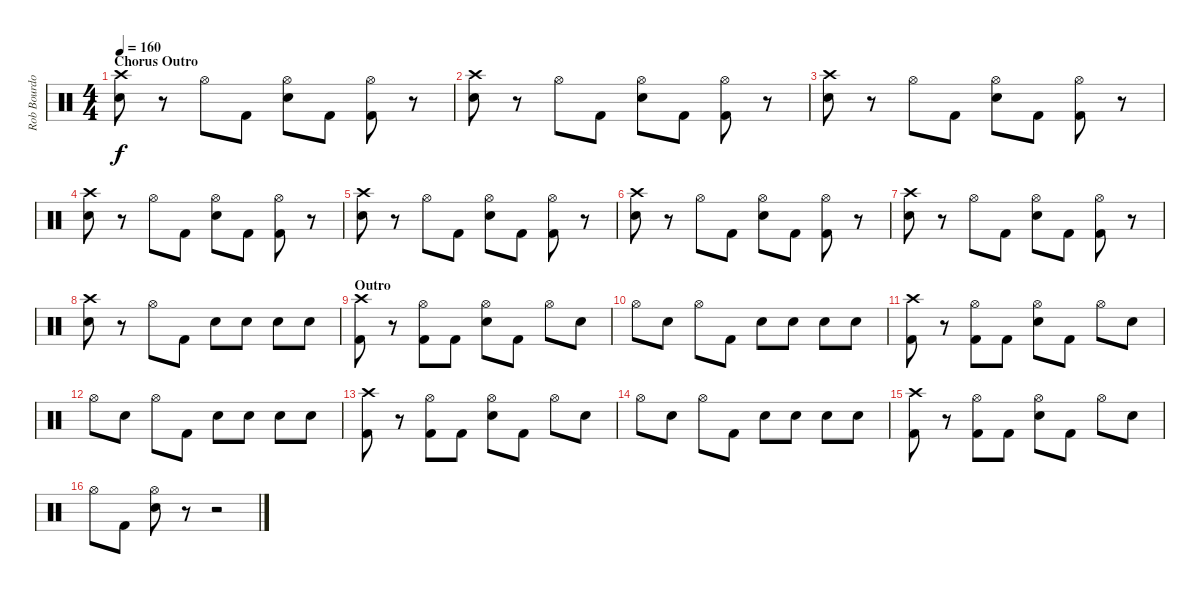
\track ("Rob Bourdon (Drums)" "Rob Bourdo") {instrument percussion}
\staff {score}
\articulation defaults
\ts (4 4)
\section ("" "Chorus Outro")
\tempo 160
\clef neutral
\ks c
("Crash high (hit)" "Electric Snare (hit)").8{dy f} r.8 "Hi-Hat (open)".8 "Kick (hit) 2".8 ("Hi-Hat (open)" "Electric Snare (hit)").8 "Kick (hit) 2".8 ("Hi-Hat (open)" "Kick (hit) 2").8 r.8 |
("Crash high (hit)" "Electric Snare (hit)").8 r.8 "Hi-Hat (open)".8 "Kick (hit) 2".8 ("Hi-Hat (open)" "Electric Snare (hit)").8 "Kick (hit) 2".8 ("Hi-Hat (open)" "Kick (hit) 2").8 r.8 |
("Crash high (hit)" "Electric Snare (hit)").8 r.8 "Hi-Hat (open)".8 "Kick (hit) 2".8 ("Hi-Hat (open)" "Electric Snare (hit)").8 "Kick (hit) 2".8 ("Hi-Hat (open)" "Kick (hit) 2").8 r.8 |
("Crash high (hit)" "Electric Snare (hit)").8 r.8 "Hi-Hat (open)".8 "Kick (hit) 2".8 ("Hi-Hat (open)" "Electric Snare (hit)").8 "Kick (hit) 2".8 ("Hi-Hat (open)" "Kick (hit) 2").8 r.8 |
("Crash high (hit)" "Electric Snare (hit)").8 r.8 "Hi-Hat (open)".8 "Kick (hit) 2".8 ("Hi-Hat (open)" "Electric Snare (hit)").8 "Kick (hit) 2".8 ("Hi-Hat (open)" "Kick (hit) 2").8 r.8 |
("Crash high (hit)" "Electric Snare (hit)").8 r.8 "Hi-Hat (open)".8 "Kick (hit) 2".8 ("Hi-Hat (open)" "Electric Snare (hit)").8 "Kick (hit) 2".8 ("Hi-Hat (open)" "Kick (hit) 2").8 r.8 |
("Crash high (hit)" "Electric Snare (hit)").8 r.8 "Hi-Hat (open)".8 "Kick (hit) 2".8 ("Hi-Hat (open)" "Electric Snare (hit)").8 "Kick (hit) 2".8 ("Hi-Hat (open)" "Kick (hit) 2").8 r.8 |
("Crash high (hit)" "Electric Snare (hit)").8 r.8 "Hi-Hat (open)".8 "Kick (hit) 2".8 "Electric Snare (hit)".8 "Electric Snare (hit)".8 "Electric Snare (hit)".8 "Electric Snare (hit)".8 |
\section ("" "Outro")
("Crash high (hit)" "Kick (hit) 2").8 r.8 ("Hi-Hat (open)" "Kick (hit) 2").8 "Kick (hit) 2".8 ("Hi-Hat (open)" "Electric Snare (hit)").8 "Kick (hit) 2".8 "Hi-Hat (open)".8 "Electric Snare (hit)".8 |
"Hi-Hat (open)".8 "Electric Snare (hit)".8 "Hi-Hat (open)".8 "Kick (hit) 2".8 "Electric Snare (hit)".8 "Electric Snare (hit)".8 "Electric Snare (hit)".8 "Electric Snare (hit)".8 |
("Crash high (hit)" "Kick (hit) 2").8 r.8 ("Hi-Hat (open)" "Kick (hit) 2").8 "Kick (hit) 2".8 ("Hi-Hat (open)" "Electric Snare (hit)").8 "Kick (hit) 2".8 "Hi-Hat (open)".8 "Electric Snare (hit)".8 |
"Hi-Hat (open)".8 "Electric Snare (hit)".8 "Hi-Hat (open)".8 "Kick (hit) 2".8 "Electric Snare (hit)".8 "Electric Snare (hit)".8 "Electric Snare (hit)".8 "Electric Snare (hit)".8 |
("Crash high (hit)" "Kick (hit) 2").8 r.8 ("Hi-Hat (open)" "Kick (hit) 2").8 "Kick (hit) 2".8 ("Hi-Hat (open)" "Electric Snare (hit)").8 "Kick (hit) 2".8 "Hi-Hat (open)".8 "Electric Snare (hit)".8 |
"Hi-Hat (open)".8 "Electric Snare (hit)".8 "Hi-Hat (open)".8 "Kick (hit) 2".8 "Electric Snare (hit)".8 "Electric Snare (hit)".8 "Electric Snare (hit)".8 "Electric Snare (hit)".8 |
("Crash high (hit)" "Kick (hit) 2").8 r.8 ("Hi-Hat (open)" "Kick (hit) 2").8 "Kick (hit) 2".8 ("Hi-Hat (open)" "Electric Snare (hit)").8 "Kick (hit) 2".8 "Hi-Hat (open)".8 "Electric Snare (hit)".8 |
"Hi-Hat (open)".8 "Kick (hit) 2".8 ("Hi-Hat (open)" "Electric Snare (hit)").8 r.8 r.2
